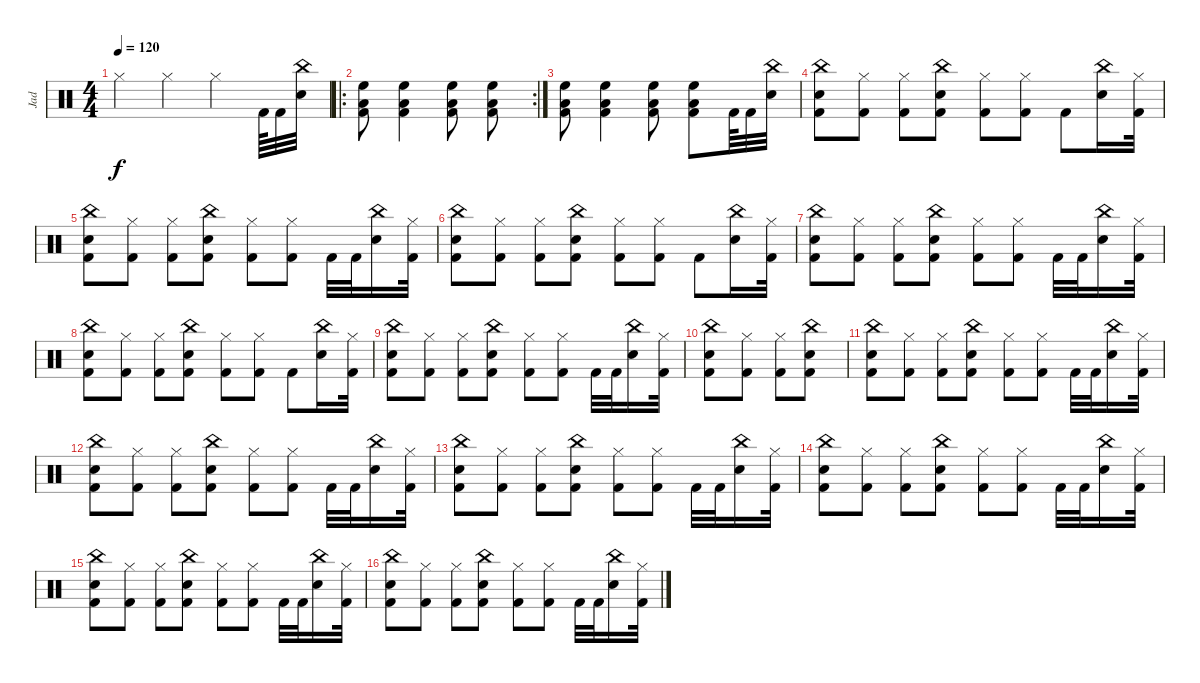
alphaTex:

\track ("Jad" "Jad") {instrument percussion}
\staff {score}
\articulation defaults
\ts (4 4)
\tempo 120
\clef neutral
\ks c "Hi-Hat (closed)".4{dy f} "Hi-Hat (closed)".4 "Hi-Hat (closed)".4 "Kick (hit) 2".64 "Kick (hit) 2".32
("China (hit)" "Electric Snare (hit)").32 |
\ro
\rc 2
("Low Tom (hit)" "High Floor Tom (hit)" "Kick (hit) 2").8 ("Low Tom (hit)" "High Floor Tom (hit)" "Kick (hit) 2").4 ("Low Tom (hit)" "High Floor Tom (hit)" "Kick (hit) 2").8 ("Low Tom (hit)" "High Floor Tom (hit)" "Kick (hit) 2").8 |
("Low Tom (hit)" "High Floor Tom (hit)" "Kick (hit) 2").8 ("Low Tom (hit)" "High Floor Tom (hit)" "Kick (hit) 2").4 ("Low Tom (hit)" "High Floor Tom (hit)" "Kick (hit) 2").8 ("Low Tom (hit)" "High Floor Tom (hit)" "Kick (hit) 2").8 "Kick (hit) 2".64 "Kick (hit) 2".32 ("China (hit)" "Electric Snare (hit)").32 |
("Electric Snare (hit)" "Kick (hit) 2" "China (hit)").8 ("Hi-Hat (closed)" "Kick (hit) 2").8 ("Hi-Hat (closed)" "Kick (hit) 2").8 ("Electric Snare (hit)" "Kick (hit) 2" "China (hit)").8 ("Hi-Hat (closed)" "Kick (hit) 2").8 ("Hi-Hat (closed)" "Kick (hit) 2").8 "Kick (hit) 2".8 ("Electric Snare (hit)" "China (hit)").16 ("Hi-Hat (closed)" "Kick (hit) 2").32 |
("Electric Snare (hit)" "Kick (hit) 2" "China (hit)").8 ("Hi-Hat (closed)" "Kick (hit) 2").8 ("Hi-Hat (closed)" "Kick (hit) 2").8 ("Electric Snare (hit)" "Kick (hit) 2" "China (hit)").8 ("Hi-Hat (closed)" "Kick (hit) 2").8 ("Hi-Hat (closed)" "Kick (hit) 2").8 "Kick (hit) 2".32 "Kick (hit) 2".32 ("Electric Snare (hit)" "China (hit)").16 ("Hi-Hat (closed)" "Kick (hit) 2").32 |
("Electric Snare (hit)" "Kick (hit) 2" "China (hit)").8 ("Hi-Hat (closed)" "Kick (hit) 2").8 ("Hi-Hat (closed)" "Kick (hit) 2").8 ("Electric Snare (hit)" "Kick (hit) 2" "China (hit)").8 ("Hi-Hat (closed)" "Kick (hit) 2").8 ("Hi-Hat (closed)" "Kick (hit) 2").8 "Kick (hit) 2".8 ("Electric Snare (hit)" "China (hit)").16 ("Hi-Hat (closed)" "Kick (hit) 2").32 |
("Electric Snare (hit)" "Kick (hit) 2" "China (hit)").8 ("Hi-Hat (closed)" "Kick (hit) 2").8 ("Hi-Hat (closed)" "Kick (hit) 2").8 ("Electric Snare (hit)" "Kick (hit) 2" "China (hit)").8 ("Hi-Hat (closed)" "Kick (hit) 2").8 ("Hi-Hat (closed)" "Kick (hit) 2").8 "Kick (hit) 2".32 "Kick (hit) 2".32 ("Electric Snare (hit)" "China (hit)").16 ("Hi-Hat (closed)" "Kick (hit) 2").32 |
("Electric Snare (hit)" "Kick (hit) 2" "China (hit)").8 ("Hi-Hat (closed)" "Kick (hit) 2").8 ("Hi-Hat (closed)" "Kick (hit) 2").8 ("Electric Snare (hit)" "Kick (hit) 2" "China (hit)").8 ("Hi-Hat (closed)" "Kick (hit) 2").8 ("Hi-Hat (closed)" "Kick (hit) 2").8 "Kick (hit) 2".8 ("Electric Snare (hit)" "China (hit)").16 ("Hi-Hat (closed)" "Kick (hit) 2").32 |
("Electric Snare (hit)" "Kick (hit) 2" "China (hit)").8 ("Hi-Hat (closed)" "Kick (hit) 2").8 ("Hi-Hat (closed)" "Kick (hit) 2").8 ("Electric Snare (hit)" "Kick (hit) 2" "China (hit)").8 ("Hi-Hat (closed)" "Kick (hit) 2").8 ("Hi-Hat (closed)" "Kick (hit) 2").8 "Kick (hit) 2".32 "Kick (hit) 2".32 ("Electric Snare (hit)" "China (hit)").16 ("Hi-Hat (closed)" "Kick (hit) 2").32 |
("Electric Snare (hit)" "Kick (hit) 2" "China (hit)").8 ("Hi-Hat (closed)" "Kick (hit) 2").8 ("Hi-Hat (closed)" "Kick (hit) 2").8 ("Electric Snare (hit)" "Kick (hit) 2" "China (hit)").8 |
("Electric Snare (hit)" "Kick (hit) 2" "China (hit)").8 ("Hi-Hat (closed)" "Kick (hit) 2").8 ("Hi-Hat (closed)" "Kick (hit) 2").8 ("Electric Snare (hit)" "Kick (hit) 2" "China (hit)").8 ("Hi-Hat (closed)" "Kick (hit) 2").8 ("Hi-Hat (closed)" "Kick (hit) 2").8 "Kick (hit) 2".32 "Kick (hit) 2".32 ("Electric Snare (hit)" "China (hit)").16 ("Hi-Hat (closed)" "Kick (hit) 2").32 |
("Electric Snare (hit)" "Kick (hit) 2" "China (hit)").8 ("Hi-Hat (closed)" "Kick (hit) 2").8 ("Hi-Hat (closed)" "Kick (hit) 2").8 ("Electric Snare (hit)" "Kick (hit) 2" "China (hit)").8 ("Hi-Hat (closed)" "Kick (hit) 2").8 ("Hi-Hat (closed)" "Kick (hit) 2").8 "Kick (hit) 2".32 "Kick (hit) 2".32 ("Electric Snare (hit)" "China (hit)").16 ("Hi-Hat (closed)" "Kick (hit) 2").32 |
("Electric Snare (hit)" "Kick (hit) 2" "China (hit)").8 ("Hi-Hat (closed)" "Kick (hit) 2").8 ("Hi-Hat (closed)" "Kick (hit) 2").8 ("Electric Snare (hit)" "Kick (hit) 2" "China (hit)").8 ("Hi-Hat (closed)" "Kick (hit) 2").8 ("Hi-Hat (closed)" "Kick (hit) 2").8 "Kick (hit) 2".32 "Kick (hit) 2".32 ("Electric Snare (hit)" "China (hit)").16 ("Hi-Hat (closed)" "Kick (hit) 2").32 |
("Electric Snare (hit)" "Kick (hit) 2" "China (hit)").8 ("Hi-Hat (closed)" "Kick (hit) 2").8 ("Hi-Hat (closed)" "Kick (hit) 2").8 ("Electric Snare (hit)" "Kick (hit) 2" "China (hit)").8 ("Hi-Hat (closed)" "Kick (hit) 2").8 ("Hi-Hat (closed)" "Kick (hit) 2").8 "Kick (hit) 2".32 "Kick (hit) 2".32 ("Electric Snare (hit)" "China (hit)").16 ("Hi-Hat (closed)" "Kick (hit) 2").32 |
("Electric Snare (hit)" "Kick (hit) 2" "China (hit)").8 ("Hi-Hat (closed)" "Kick (hit) 2").8 ("Hi-Hat (closed)" "Kick (hit) 2").8 ("Electric Snare (hit)" "Kick (hit) 2" "China (hit)").8 ("Hi-Hat (closed)" "Kick (hit) 2").8 ("Hi-Hat (closed)" "Kick (hit) 2").8 "Kick (hit) 2".32 "Kick (hit) 2".32 ("Electric Snare (hit)" "China (hit)").16 ("Hi-Hat (closed)" "Kick (hit) 2").32 |
("Electric Snare (hit)" "Kick (hit) 2" "China (hit)").8 ("Hi-Hat (closed)" "Kick (hit) 2").8 ("Hi-Hat (closed)" "Kick (hit) 2").8 ("Electric Snare (hit)" "Kick (hit) 2" "China (hit)").8 ("Hi-Hat (closed)" "Kick (hit) 2").8 ("Hi-Hat (closed)" "Kick (hit) 2").8 "Kick (hit) 2".32 "Kick (hit) 2".32 ("Electric Snare (hit)" "China (hit)").16 ("Hi-Hat (closed)" "Kick (hit) 2").32
